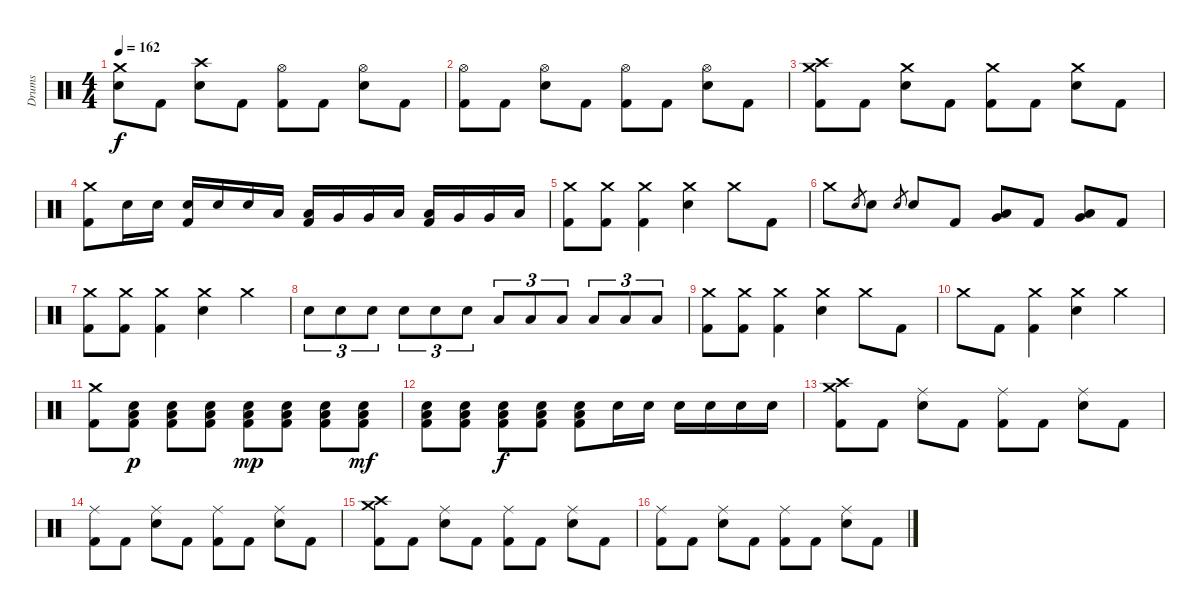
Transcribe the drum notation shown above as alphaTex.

\track ("Drums" "Drums") {instrument percussion}
\staff {score}
\articulation defaults
\ts (4 4)
\tempo 162
\clef neutral
\ks c
("Crash medium (hit)" "Electric Snare (hit)").8{dy f} "Kick (hit) 2".8 ("Crash high (hit)" "Electric Snare (hit)").8 "Kick (hit) 2".8 ("Hi-Hat (open)" "Kick (hit) 2").8 "Kick (hit) 2".8 ("Hi-Hat (open)" "Electric Snare (hit)").8 "Kick (hit) 2".8 |
("Hi-Hat (open)" "Kick (hit) 2").8 "Kick (hit) 2".8 ("Hi-Hat (open)" "Electric Snare (hit)").8 "Kick (hit) 2".8 ("Hi-Hat (open)" "Kick (hit) 2").8 "Kick (hit) 2".8 ("Hi-Hat (open)" "Electric Snare (hit)").8 "Kick (hit) 2".8 |
("Crash medium (hit)" "Crash high (hit)" "Kick (hit) 2").8 "Kick (hit) 2".8 ("Crash medium (hit)" "Electric Snare (hit)").8 "Kick (hit) 2".8 ("Crash medium (hit)" "Kick (hit) 2").8 "Kick (hit) 2".8 ("Crash medium (hit)" "Electric Snare (hit)").8 "Kick (hit) 2".8 |
("Crash medium (hit)" "Kick (hit) 2").8 "Electric Snare (hit)".16 "Electric Snare (hit)".16 ("Electric Snare (hit)" "Kick (hit) 2").16 "Electric Snare (hit)".16 "Electric Snare (hit)".16 "Low Tom (hit)".16 ("Low Tom (hit)" "Kick (hit) 2").16 "Very Low Tom (hit)".16 "Very Low Tom (hit)".16 "Low Tom (hit)".16 ("Low Tom (hit)" "Kick (hit) 2").16 "Very Low Tom (hit)".16 "Very Low Tom (hit)".16 "Low Floor Tom (hit)".16 |
("Crash medium (hit)" "Kick (hit) 2").8 ("Crash medium (hit)" "Kick (hit) 2").8 ("Crash medium (hit)" "Kick (hit) 2").4 ("Crash medium (hit)" "Electric Snare (hit)").4 "Crash medium (hit)".8 "Kick (hit) 2".8 |
"Crash medium (hit)".8 "Electric Snare (hit)".8{gr} "Electric Snare (hit)".8 "Electric Snare (hit)".8{gr} "Electric Snare (hit)".8 "Kick (hit) 2".8 ("Very Low Tom (hit)" "Low Tom (hit)").8{bd 120} "Kick (hit) 2".8 ("Low Floor Tom (hit)" "Very Low Tom (hit)").8{bd 120} "Kick (hit) 2".8 |
("Crash medium (hit)" "Kick (hit) 2").8 ("Crash medium (hit)" "Kick (hit) 2").8 ("Crash medium (hit)" "Kick (hit) 2").4 ("Crash medium (hit)" "Electric Snare (hit)").4 "Crash medium (hit)".4 |
"Electric Snare (hit)".8{tu (3 2)} "Electric Snare (hit)".8{tu (3 2)} "Electric Snare (hit)".8{tu (3 2)} "Electric Snare (hit)".8{tu (3 2)} "Electric Snare (hit)".8{tu (3 2)} "Electric Snare (hit)".8{tu (3 2)} "Low Tom (hit)".8{tu (3 2)} "Low Tom (hit)".8{tu (3 2)} "Low Tom (hit)".8{tu (3 2)} "Low Tom (hit)".8{tu (3 2)} "Low Tom (hit)".8{tu (3 2)} "Low Tom (hit)".8{tu (3 2)} |
("Crash medium (hit)" "Kick (hit) 2").8 ("Crash medium (hit)" "Kick (hit) 2").8 ("Crash medium (hit)" "Kick (hit) 2").4 ("Crash medium (hit)" "Electric Snare (hit)").4 "Crash medium (hit)".8 "Kick (hit) 2".8 |
"Crash medium (hit)".8 "Kick (hit) 2".8 ("Crash medium (hit)" "Kick (hit) 2").4 ("Crash medium (hit)" "Electric Snare (hit)").4 "Crash medium (hit)".4 |
("Crash medium (hit)" "Kick (hit) 2").8 ("Low Floor Tom (hit)" "Electric Snare (hit)" "Kick (hit) 2").8{dy p} ("Low Floor Tom (hit)" "Electric Snare (hit)" "Kick (hit) 2").8 ("Low Floor Tom (hit)" "Electric Snare (hit)" "Kick (hit) 2").8 ("Low Floor Tom (hit)" "Electric Snare (hit)" "Kick (hit) 2").8{dy mp} ("Low Floor Tom (hit)" "Electric Snare (hit)" "Kick (hit) 2").8 ("Low Floor Tom (hit)" "Electric Snare (hit)" "Kick (hit) 2").8 ("Low Floor Tom (hit)" "Electric Snare (hit)" "Kick (hit) 2").8{dy mf} |
("Low Floor Tom (hit)" "Electric Snare (hit)" "Kick (hit) 2").8 ("Low Floor Tom (hit)" "Electric Snare (hit)" "Kick (hit) 2").8 ("Low Floor Tom (hit)" "Electric Snare (hit)" "Kick (hit) 2").8{dy f} ("Low Floor Tom (hit)" "Electric Snare (hit)" "Kick (hit) 2").8 ("Low Floor Tom (hit)" "Electric Snare (hit)" "Kick (hit) 2").8 "Electric Snare (hit)".16 "Electric Snare (hit)".16 "Electric Snare (hit)".16 "Electric Snare (hit)".16 "Electric Snare (hit)".16 "Electric Snare (hit)".16 |
("Crash medium (hit)" "Crash high (hit)" "Kick (hit) 2").8 "Kick (hit) 2".8 ("Ride (middle)" "Electric Snare (hit)").8 "Kick (hit) 2".8 ("Ride (middle)" "Kick (hit) 2").8 "Kick (hit) 2".8 ("Ride (middle)" "Electric Snare (hit)").8 "Kick (hit) 2".8 |
("Ride (middle)" "Kick (hit) 2").8 "Kick (hit) 2".8 ("Ride (middle)" "Electric Snare (hit)").8 "Kick (hit) 2".8 ("Ride (middle)" "Kick (hit) 2").8 "Kick (hit) 2".8 ("Ride (middle)" "Electric Snare (hit)").8 "Kick (hit) 2".8 |
("Crash medium (hit)" "Crash high (hit)" "Kick (hit) 2").8 "Kick (hit) 2".8 ("Ride (middle)" "Electric Snare (hit)").8 "Kick (hit) 2".8 ("Ride (middle)" "Kick (hit) 2").8 "Kick (hit) 2".8 ("Ride (middle)" "Electric Snare (hit)").8 "Kick (hit) 2".8 |
("Ride (middle)" "Kick (hit) 2").8 "Kick (hit) 2".8 ("Ride (middle)" "Electric Snare (hit)").8 "Kick (hit) 2".8 ("Ride (middle)" "Kick (hit) 2").8 "Kick (hit) 2".8 ("Ride (middle)" "Electric Snare (hit)").8 "Kick (hit) 2".8
